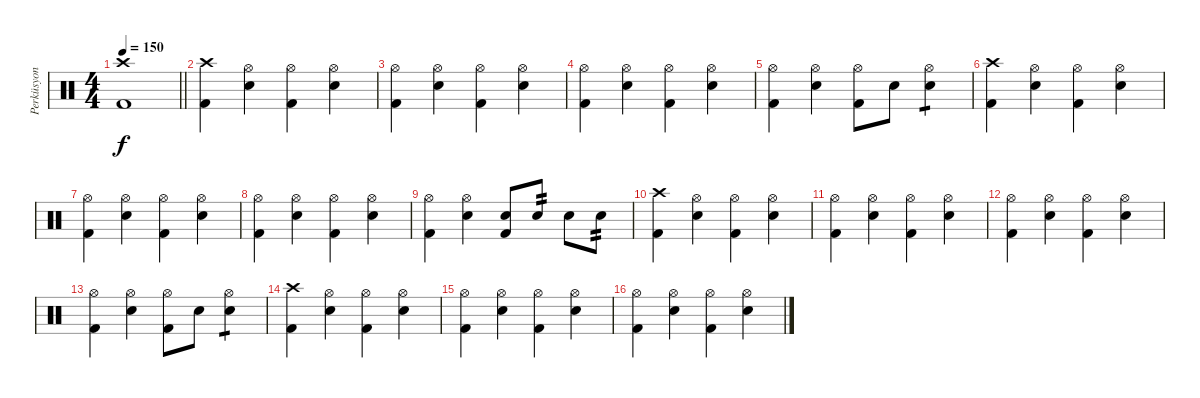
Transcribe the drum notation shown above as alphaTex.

\track ("Perküsyon" "Perküsyon") {instrument percussion}
\staff {score}
\articulation defaults
\ts (4 4)
\tempo 150
\clef neutral
\barLineRight lightlight
\ks c
("Kick (hit) 2" "Crash high (hit)").1{dy f} |
("Crash high (hit)" "Kick (hit) 2").4 ("Hi-Hat (open)" "Snare (hit) 2").4 ("Hi-Hat (open)" "Kick (hit) 2").4 ("Hi-Hat (open)" "Snare (hit) 2").4 |
("Hi-Hat (open)" "Kick (hit) 2").4 ("Hi-Hat (open)" "Snare (hit) 2").4 ("Hi-Hat (open)" "Kick (hit) 2").4 ("Hi-Hat (open)" "Snare (hit) 2").4 |
("Hi-Hat (open)" "Kick (hit) 2").4 ("Hi-Hat (open)" "Snare (hit) 2").4 ("Hi-Hat (open)" "Kick (hit) 2").4 ("Hi-Hat (open)" "Snare (hit) 2").4 |
("Hi-Hat (open)" "Kick (hit) 2").4 ("Hi-Hat (open)" "Snare (hit) 2").4 ("Hi-Hat (open)" "Kick (hit) 2").8 "Snare (hit) 2".8 ("Hi-Hat (open)" "Snare (hit) 2").4{tp 1} |
("Crash high (hit)" "Kick (hit) 2").4 ("Hi-Hat (open)" "Snare (hit) 2").4 ("Hi-Hat (open)" "Kick (hit) 2").4 ("Hi-Hat (open)" "Snare (hit) 2").4 |
("Hi-Hat (open)" "Kick (hit) 2").4 ("Hi-Hat (open)" "Snare (hit) 2").4 ("Hi-Hat (open)" "Kick (hit) 2").4 ("Hi-Hat (open)" "Snare (hit) 2").4 |
("Hi-Hat (open)" "Kick (hit) 2").4 ("Hi-Hat (open)" "Snare (hit) 2").4 ("Hi-Hat (open)" "Kick (hit) 2").4 ("Hi-Hat (open)" "Snare (hit) 2").4 |
("Hi-Hat (open)" "Kick (hit) 2").4 ("Hi-Hat (open)" "Snare (hit) 2").4 ("Snare (hit) 2" "Kick (hit) 2").8 "Snare (hit) 2".8{tp 2} "Snare (hit) 2".8 "Snare (hit) 2".8{tp 2} |
("Crash high (hit)" "Kick (hit) 2").4 ("Hi-Hat (open)" "Snare (hit) 2").4 ("Hi-Hat (open)" "Kick (hit) 2").4 ("Hi-Hat (open)" "Snare (hit) 2").4 |
("Hi-Hat (open)" "Kick (hit) 2").4 ("Hi-Hat (open)" "Snare (hit) 2").4 ("Hi-Hat (open)" "Kick (hit) 2").4 ("Hi-Hat (open)" "Snare (hit) 2").4 |
("Hi-Hat (open)" "Kick (hit) 2").4 ("Hi-Hat (open)" "Snare (hit) 2").4 ("Hi-Hat (open)" "Kick (hit) 2").4 ("Hi-Hat (open)" "Snare (hit) 2").4 |
("Hi-Hat (open)" "Kick (hit) 2").4 ("Hi-Hat (open)" "Snare (hit) 2").4 ("Hi-Hat (open)" "Kick (hit) 2").8 "Snare (hit) 2".8 ("Hi-Hat (open)" "Snare (hit) 2").4{tp 1} |
("Crash high (hit)" "Kick (hit) 2").4 ("Hi-Hat (open)" "Snare (hit) 2").4 ("Hi-Hat (open)" "Kick (hit) 2").4 ("Hi-Hat (open)" "Snare (hit) 2").4 |
("Hi-Hat (open)" "Kick (hit) 2").4 ("Hi-Hat (open)" "Snare (hit) 2").4 ("Hi-Hat (open)" "Kick (hit) 2").4 ("Hi-Hat (open)" "Snare (hit) 2").4 |
("Hi-Hat (open)" "Kick (hit) 2").4 ("Hi-Hat (open)" "Snare (hit) 2").4 ("Hi-Hat (open)" "Kick (hit) 2").4 ("Hi-Hat (open)" "Snare (hit) 2").4
